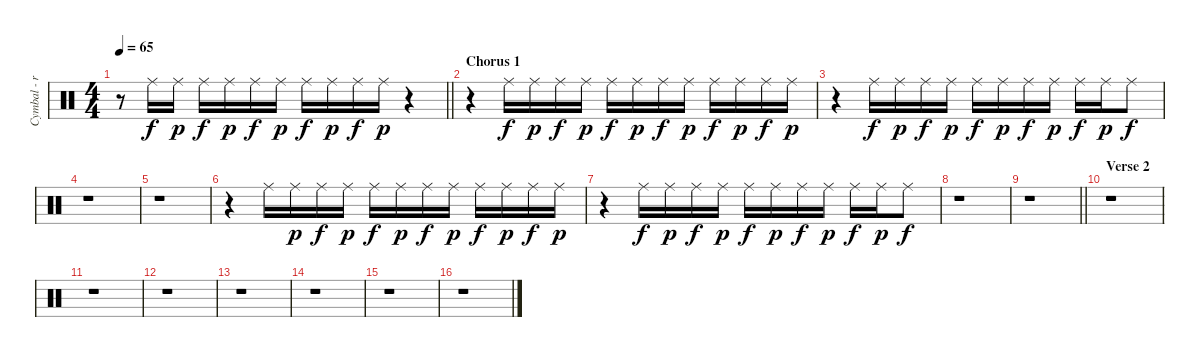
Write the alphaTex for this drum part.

\track ("Cymbal - ride" "Cymbal - r") {instrument percussion}
\staff {score}
\articulation defaults
\ts (4 4)
\tempo 65
\clef neutral
\barLineRight lightlight
\ks c
r.8{dy f} "Ride (middle)".16 "Ride (middle)".16{dy p} "Ride (middle)".16{dy f} "Ride (middle)".16{dy p} "Ride (middle)".16{dy f} "Ride (middle)".16{dy p} "Ride (middle)".16{dy f} "Ride (middle)".16{dy p} "Ride (middle)".16{dy f} "Ride (middle)".16{dy p} r.4 |
\section ("" "Chorus 1")
r.4 "Ride (middle)".16{dy f} "Ride (middle)".16{dy p} "Ride (middle)".16{dy f} "Ride (middle)".16{dy p} "Ride (middle)".16{dy f} "Ride (middle)".16{dy p} "Ride (middle)".16{dy f} "Ride (middle)".16{dy p} "Ride (middle)".16{dy f} "Ride (middle)".16{dy p} "Ride (middle)".16{dy f} "Ride (middle)".16{dy p} |
r.4 "Ride (middle)".16{dy f} "Ride (middle)".16{dy p} "Ride (middle)".16{dy f} "Ride (middle)".16{dy p} "Ride (middle)".16{dy f} "Ride (middle)".16{dy p} "Ride (middle)".16{dy f} "Ride (middle)".16{dy p} "Ride (middle)".16{dy f} "Ride (middle)".16{dy p} "Ride (middle)".8{dy f} |
r.1 |
r.1 |
r.4 "Ride (middle)".16 "Ride (middle)".16{dy p} "Ride (middle)".16{dy f} "Ride (middle)".16{dy p} "Ride (middle)".16{dy f} "Ride (middle)".16{dy p} "Ride (middle)".16{dy f} "Ride (middle)".16{dy p} "Ride (middle)".16{dy f} "Ride (middle)".16{dy p} "Ride (middle)".16{dy f} "Ride (middle)".16{dy p} |
r.4 "Ride (middle)".16{dy f} "Ride (middle)".16{dy p} "Ride (middle)".16{dy f} "Ride (middle)".16{dy p} "Ride (middle)".16{dy f} "Ride (middle)".16{dy p} "Ride (middle)".16{dy f} "Ride (middle)".16{dy p} "Ride (middle)".16{dy f} "Ride (middle)".16{dy p} "Ride (middle)".8{dy f} |
r.1 |
\barLineRight lightlight
r.1 |
\section ("" "Verse 2")
r.1 |
r.1 |
r.1 |
r.1 |
r.1 |
r.1 |
r.1
